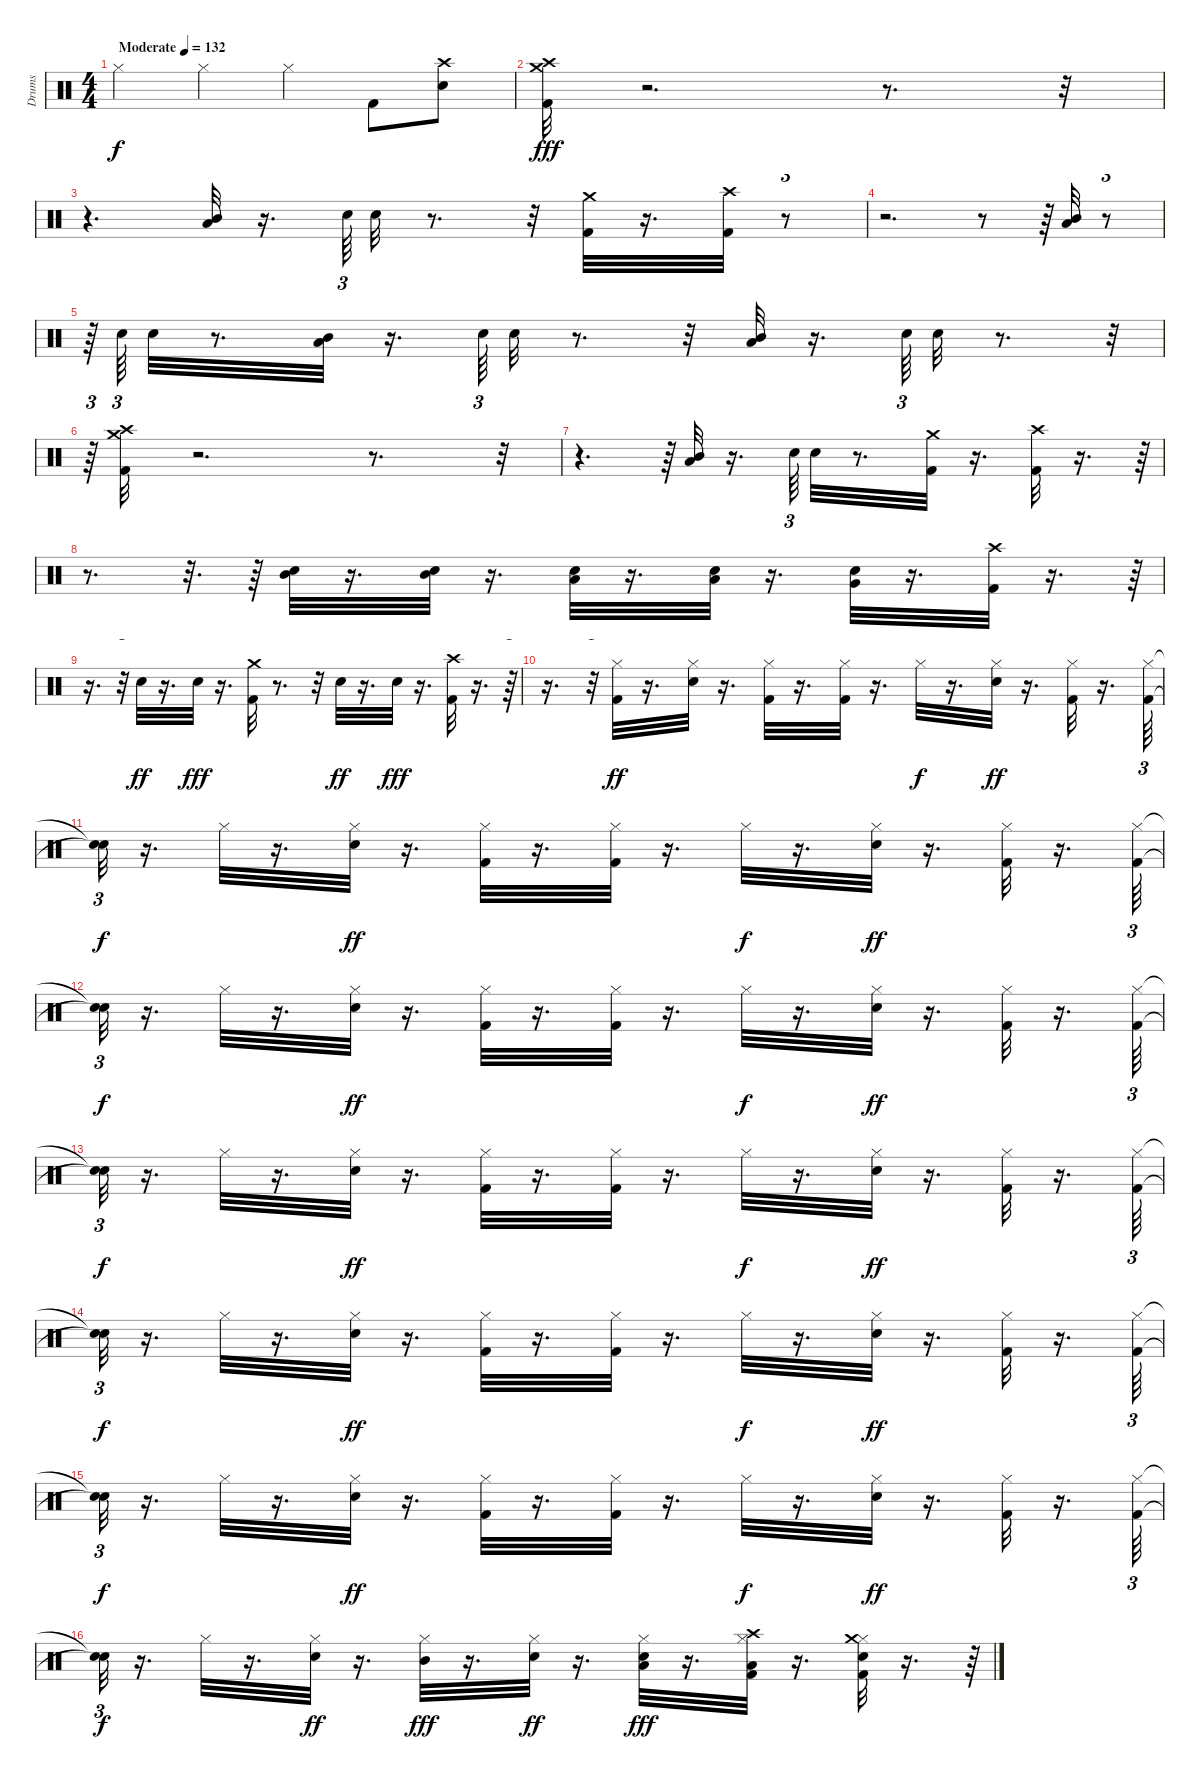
\track ("Drums" "Drums") {instrument percussion}
\staff {score}
\articulation defaults
\ts (4 4)
\tempo (132 "Moderate")
\clef neutral
\ks c "Hi-Hat (closed)".4{dy f} "Hi-Hat (closed)".4 "Hi-Hat (closed)".4 "Kick (hit) 2".8
("Snare (hit) 2" "Crash high (hit)").8 |
("Kick (hit) 2" "Crash high (hit)" "Crash medium (hit)").32{dy fff} r.2{d} r.8{d} r.32 |
r.4{d} ("Low Tom (hit)" "Mid Tom (hit)").32 r.16{d} "Snare (hit) 2".64{tu (3 2)} "Snare (hit) 2".32 r.8{d} r.32 ("Kick (hit) 2" "Crash medium (hit)").32 r.16{d} ("Kick (hit) 2" "Crash high (hit)").32 r.8{tu (3 2)} |
r.2{d} r.8 r.64{tu (3 2)} ("Low Tom (hit)" "Mid Tom (hit)").32 r.8{tu (3 2)} |
r.64{tu (3 2)} "Snare (hit) 2".64{tu (3 2)} "Snare (hit) 2".32 r.8{d} ("Low Tom (hit)" "Mid Tom (hit)").32 r.16{d} "Snare (hit) 2".64{tu (3 2)} "Snare (hit) 2".32 r.8{d} r.32 ("Low Tom (hit)" "Mid Tom (hit)").32 r.16{d} "Snare (hit) 2".64{tu (3 2)} "Snare (hit) 2".32 r.8{d} r.32{tu (3 2)} |
r.64{tu (3 2)} ("Kick (hit) 2" "Crash high (hit)" "Crash medium (hit)").32 r.2{d} r.8{d} r.32{tu (3 2)} |
r.4{d} r.64{tu (3 2)} ("Low Tom (hit)" "Mid Tom (hit)").32 r.16{d} "Snare (hit) 2".64{tu (3 2)} "Snare (hit) 2".32 r.8{d} ("Kick (hit) 2" "Crash medium (hit)").32 r.16{d} ("Kick (hit) 2" "Crash high (hit)").32 r.16{d} r.64{tu (3 2)} |
r.8{d} r.32{d} r.64 ("Snare (hit) 2" "Mid Tom (hit)").32 r.16{d} ("Snare (hit) 2" "Mid Tom (hit)").32 r.16{d} ("Snare (hit) 2" "Low Tom (hit)").32 r.16{d} ("Snare (hit) 2" "Low Tom (hit)").32 r.16{d} ("Snare (hit) 2" "Very Low Tom (hit)").32 r.16{d} ("Kick (hit) 2" "Crash high (hit)").32 r.16{d} r.64{tu (3 2)} |
r.16{d} r.32{tu (3 2)} "Snare (hit) 2".32{dy ff} r.16{d} "Snare (hit) 2".32{dy fff} r.16{d} ("Kick (hit) 2" "Crash medium (hit)").32 r.8{d} r.32 "Snare (hit) 2".32{dy ff} r.16{d} "Snare (hit) 2".32{dy fff} r.16{d} ("Kick (hit) 2" "Crash high (hit)").32 r.16{d} r.64{tu (3 2)} |
r.16{d} r.32{tu (3 2)} ("Kick (hit) 2" "Hi-Hat (closed)").32{dy ff} r.16{d} ("Snare (hit) 2" "Hi-Hat (closed)").32 r.16{d} ("Kick (hit) 2" "Hi-Hat (closed)").32 r.16{d} ("Kick (hit) 2" "Hi-Hat (closed)").32 r.16{d} "Hi-Hat (closed)".32{dy f} r.16{d} ("Snare (hit) 2" "Hi-Hat (closed)").32{dy ff} r.16{d} ("Kick (hit) 2" "Hi-Hat (closed)").32 r.16{d} ("Kick (hit) 2" "Hi-Hat (closed)").64{tu (3 2)} |
("Snare (hit)"{t} "Snare (hit)"{t}).32{tu (3 2) dy f} r.16{d} "Hi-Hat (closed)".32 r.16{d} ("Snare (hit) 2" "Hi-Hat (closed)").32{dy ff} r.16{d} ("Kick (hit) 2" "Hi-Hat (closed)").32 r.16{d} ("Kick (hit) 2" "Hi-Hat (closed)").32 r.16{d} "Hi-Hat (closed)".32{dy f} r.16{d} ("Snare (hit) 2" "Hi-Hat (closed)").32{dy ff} r.16{d} ("Kick (hit) 2" "Hi-Hat (closed)").32 r.16{d} ("Kick (hit) 2" "Hi-Hat (closed)").64{tu (3 2)} |
("Snare (hit)"{t} "Snare (hit)"{t}).32{tu (3 2) dy f} r.16{d} "Hi-Hat (closed)".32 r.16{d} ("Snare (hit) 2" "Hi-Hat (closed)").32{dy ff} r.16{d} ("Kick (hit) 2" "Hi-Hat (closed)").32 r.16{d} ("Kick (hit) 2" "Hi-Hat (closed)").32 r.16{d} "Hi-Hat (closed)".32{dy f} r.16{d} ("Snare (hit) 2" "Hi-Hat (closed)").32{dy ff} r.16{d} ("Kick (hit) 2" "Hi-Hat (closed)").32 r.16{d} ("Kick (hit) 2" "Hi-Hat (closed)").64{tu (3 2)} |
("Snare (hit)"{t} "Snare (hit)"{t}).32{tu (3 2) dy f} r.16{d} "Hi-Hat (closed)".32 r.16{d} ("Snare (hit) 2" "Hi-Hat (closed)").32{dy ff} r.16{d} ("Kick (hit) 2" "Hi-Hat (closed)").32 r.16{d} ("Kick (hit) 2" "Hi-Hat (closed)").32 r.16{d} "Hi-Hat (closed)".32{dy f} r.16{d} ("Snare (hit) 2" "Hi-Hat (closed)").32{dy ff} r.16{d} ("Kick (hit) 2" "Hi-Hat (closed)").32 r.16{d} ("Kick (hit) 2" "Hi-Hat (closed)").64{tu (3 2)} |
("Snare (hit)"{t} "Snare (hit)"{t}).32{tu (3 2) dy f} r.16{d} "Hi-Hat (closed)".32 r.16{d} ("Snare (hit) 2" "Hi-Hat (closed)").32{dy ff} r.16{d} ("Kick (hit) 2" "Hi-Hat (closed)").32 r.16{d} ("Kick (hit) 2" "Hi-Hat (closed)").32 r.16{d} "Hi-Hat (closed)".32{dy f} r.16{d} ("Snare (hit) 2" "Hi-Hat (closed)").32{dy ff} r.16{d} ("Kick (hit) 2" "Hi-Hat (closed)").32 r.16{d} ("Kick (hit) 2" "Hi-Hat (closed)").64{tu (3 2)} |
("Snare (hit)"{t} "Snare (hit)"{t}).32{tu (3 2) dy f} r.16{d} "Hi-Hat (closed)".32 r.16{d} ("Snare (hit) 2" "Hi-Hat (closed)").32{dy ff} r.16{d} ("Kick (hit) 2" "Hi-Hat (closed)").32 r.16{d} ("Kick (hit) 2" "Hi-Hat (closed)").32 r.16{d} "Hi-Hat (closed)".32{dy f} r.16{d} ("Snare (hit) 2" "Hi-Hat (closed)").32{dy ff} r.16{d} ("Kick (hit) 2" "Hi-Hat (closed)").32 r.16{d} ("Kick (hit) 2" "Hi-Hat (closed)").64{tu (3 2)} |
("Snare (hit)"{t} "Snare (hit)"{t}).32{tu (3 2) dy f} r.16{d} "Hi-Hat (closed)".32 r.16{d} ("Snare (hit) 2" "Hi-Hat (closed)").32{dy ff} r.16{d} ("Hi-Hat (closed)" "Mid Tom (hit)").32{dy fff} r.16{d} ("Snare (hit) 2" "Hi-Hat (closed)").32{dy ff} r.16{d} ("Snare (hit) 2" "Hi-Hat (closed)" "Low Tom (hit)").32{dy fff} r.16{d} ("Kick (hit) 2" "Hi-Hat (closed)" "Crash high (hit)" "Low Tom (hit)").32 r.16{d} ("Kick (hit) 2" "Snare (hit) 2" "Hi-Hat (closed)" "Crash medium (hit)").32 r.16{d} r.64{tu (3 2)}
